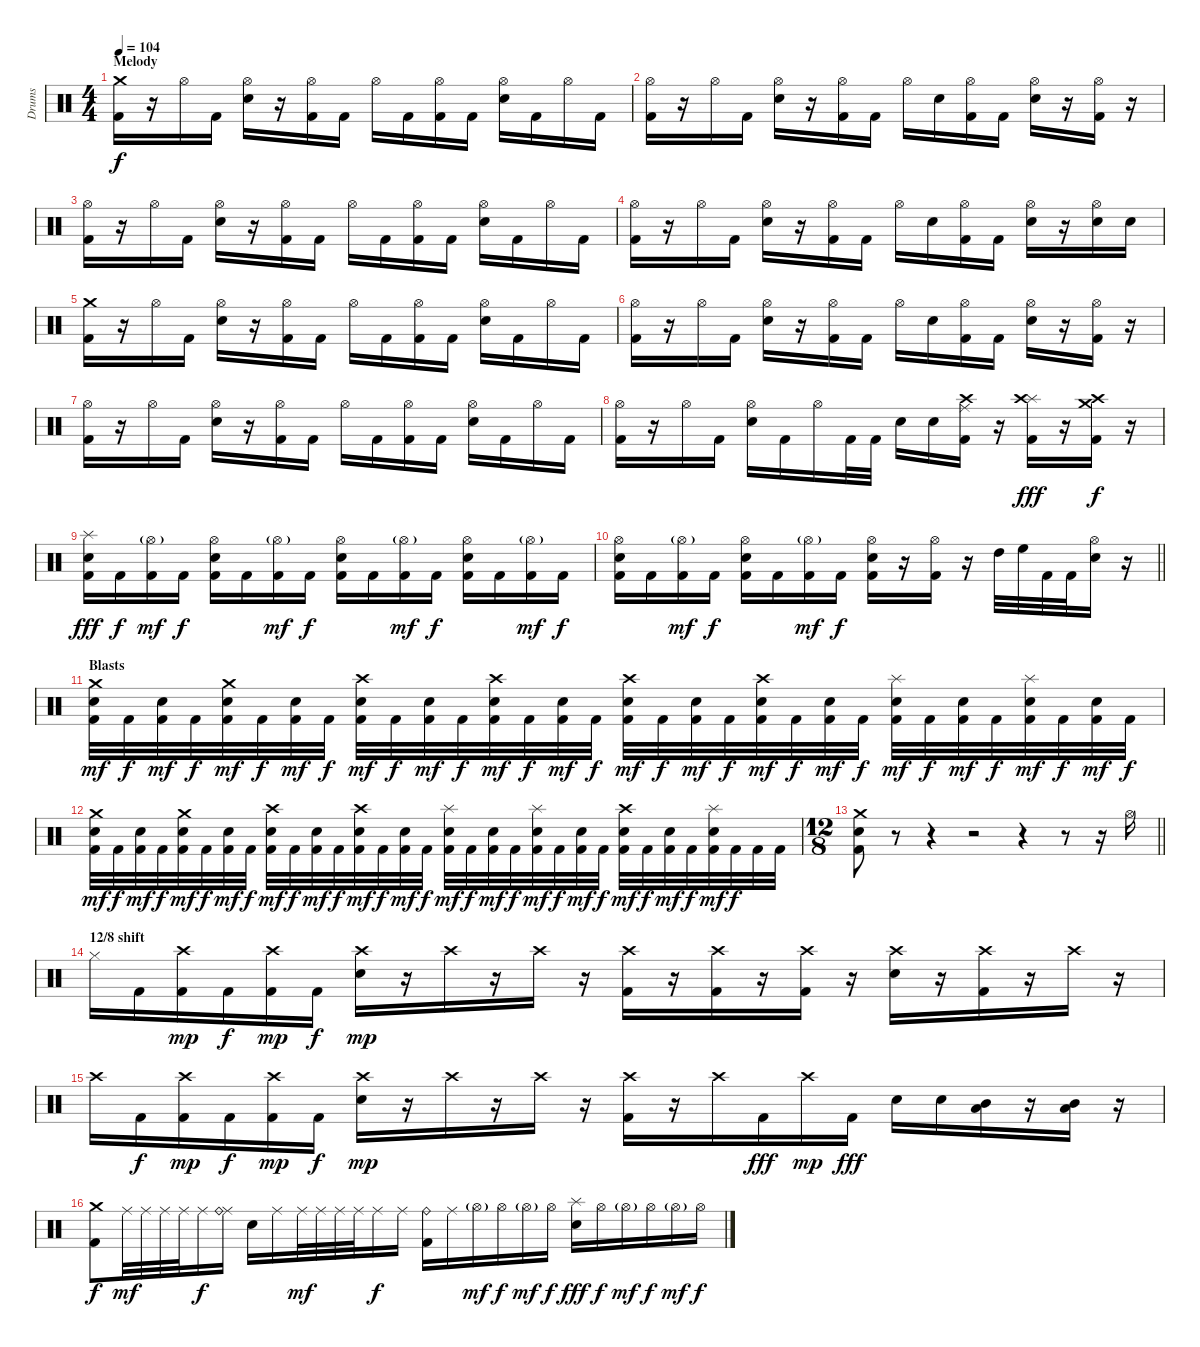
\track ("Drums" "Drums") {instrument percussion}
\staff {score}
\articulation defaults
\ts (4 4)
\section ("" "Melody")
\tempo 104
\clef neutral
\ks c
("Crash medium (hit)" "Kick (hit) 2").16{dy f} r.16 "Hi-Hat (open)".16 "Kick (hit) 2".16 ("Hi-Hat (open)" "Electric Snare (hit)").16 r.16 ("Hi-Hat (open)" "Kick (hit) 2").16 "Kick (hit) 2".16 "Hi-Hat (open)".16 "Kick (hit) 2".16 ("Hi-Hat (open)" "Kick (hit) 2").16 "Kick (hit) 2".16 ("Hi-Hat (open)" "Electric Snare (hit)").16 "Kick (hit) 2".16 "Hi-Hat (open)".16 "Kick (hit) 2".16 |
("Hi-Hat (open)" "Kick (hit) 2").16 r.16 "Hi-Hat (open)".16 "Kick (hit) 2".16 ("Hi-Hat (open)" "Electric Snare (hit)").16 r.16 ("Hi-Hat (open)" "Kick (hit) 2").16 "Kick (hit) 2".16 "Hi-Hat (open)".16 "Electric Snare (hit)".16 ("Hi-Hat (open)" "Kick (hit) 2").16 "Kick (hit) 2".16 ("Hi-Hat (open)" "Electric Snare (hit)").16 r.16 ("Hi-Hat (open)" "Kick (hit) 2").16 r.16 |
("Hi-Hat (open)" "Kick (hit) 2").16 r.16 "Hi-Hat (open)".16 "Kick (hit) 2".16 ("Hi-Hat (open)" "Electric Snare (hit)").16 r.16 ("Hi-Hat (open)" "Kick (hit) 2").16 "Kick (hit) 2".16 "Hi-Hat (open)".16 "Kick (hit) 2".16 ("Hi-Hat (open)" "Kick (hit) 2").16 "Kick (hit) 2".16 ("Hi-Hat (open)" "Electric Snare (hit)").16 "Kick (hit) 2".16 "Hi-Hat (open)".16 "Kick (hit) 2".16 |
("Hi-Hat (open)" "Kick (hit) 2").16 r.16 "Hi-Hat (open)".16 "Kick (hit) 2".16 ("Hi-Hat (open)" "Electric Snare (hit)").16 r.16 ("Hi-Hat (open)" "Kick (hit) 2").16 "Kick (hit) 2".16 "Hi-Hat (open)".16 "Electric Snare (hit)".16 ("Hi-Hat (open)" "Kick (hit) 2").16 "Kick (hit) 2".16 ("Hi-Hat (open)" "Electric Snare (hit)").16 r.16 ("Hi-Hat (open)" "Electric Snare (hit)").16 "Electric Snare (hit)".16 |
("Crash medium (hit)" "Kick (hit) 2").16 r.16 "Hi-Hat (open)".16 "Kick (hit) 2".16 ("Hi-Hat (open)" "Electric Snare (hit)").16 r.16 ("Hi-Hat (open)" "Kick (hit) 2").16 "Kick (hit) 2".16 "Hi-Hat (open)".16 "Kick (hit) 2".16 ("Hi-Hat (open)" "Kick (hit) 2").16 "Kick (hit) 2".16 ("Hi-Hat (open)" "Electric Snare (hit)").16 "Kick (hit) 2".16 "Hi-Hat (open)".16 "Kick (hit) 2".16 |
("Hi-Hat (open)" "Kick (hit) 2").16 r.16 "Hi-Hat (open)".16 "Kick (hit) 2".16 ("Hi-Hat (open)" "Electric Snare (hit)").16 r.16 ("Hi-Hat (open)" "Kick (hit) 2").16 "Kick (hit) 2".16 "Hi-Hat (open)".16 "Electric Snare (hit)".16 ("Hi-Hat (open)" "Kick (hit) 2").16 "Kick (hit) 2".16 ("Hi-Hat (open)" "Electric Snare (hit)").16 r.16 ("Hi-Hat (open)" "Kick (hit) 2").16 r.16 |
("Hi-Hat (open)" "Kick (hit) 2").16 r.16 "Hi-Hat (open)".16 "Kick (hit) 2".16 ("Hi-Hat (open)" "Electric Snare (hit)").16 r.16 ("Hi-Hat (open)" "Kick (hit) 2").16 "Kick (hit) 2".16 "Hi-Hat (open)".16 "Kick (hit) 2".16 ("Hi-Hat (open)" "Kick (hit) 2").16 "Kick (hit) 2".16 ("Hi-Hat (open)" "Electric Snare (hit)").16 "Kick (hit) 2".16 "Hi-Hat (open)".16 "Kick (hit) 2".16 |
("Hi-Hat (open)" "Kick (hit) 2").16 r.16 "Hi-Hat (open)".16 "Kick (hit) 2".16 ("Hi-Hat (open)" "Electric Snare (hit)").16 "Kick (hit) 2".16 "Hi-Hat (open)".16 "Kick (hit) 2".32 "Kick (hit) 2".32 "Electric Snare (hit)".16 "Electric Snare (hit)".16 ("Crash high (hit)" "Ride (middle)" "Kick (hit) 2").16 r.16 ("Splash (hit)" "Crash high (hit)" "Kick (hit) 2").16{dy fff} r.16 ("Crash high (hit)" "Crash medium (hit)" "Kick (hit) 2").16{dy f} r.16 |
("Splash (hit)" "Electric Snare (hit)" "Kick (hit) 2").16{dy fff} "Kick (hit) 2".16{dy f} ("Hi-Hat (open)"{g} "Kick (hit) 2").16{dy mf} "Kick (hit) 2".16{dy f} ("Hi-Hat (open)" "Electric Snare (hit)" "Kick (hit) 2").16 "Kick (hit) 2".16 ("Hi-Hat (open)"{g} "Kick (hit) 2").16{dy mf} "Kick (hit) 2".16{dy f} ("Hi-Hat (open)" "Electric Snare (hit)" "Kick (hit) 2").16 "Kick (hit) 2".16 ("Hi-Hat (open)"{g} "Kick (hit) 2").16{dy mf} "Kick (hit) 2".16{dy f} ("Hi-Hat (open)" "Electric Snare (hit)" "Kick (hit) 2").16 "Kick (hit) 2".16 ("Hi-Hat (open)"{g} "Kick (hit) 2").16{dy mf} "Kick (hit) 2".16{dy f} |
\barLineRight lightlight
("Hi-Hat (open)" "Electric Snare (hit)" "Kick (hit) 2").16 "Kick (hit) 2".16 ("Hi-Hat (open)"{g} "Kick (hit) 2").16{dy mf} "Kick (hit) 2".16{dy f} ("Hi-Hat (open)" "Electric Snare (hit)" "Kick (hit) 2").16 "Kick (hit) 2".16 ("Hi-Hat (open)"{g} "Kick (hit) 2").16{dy mf} "Kick (hit) 2".16{dy f} ("Hi-Hat (open)" "Electric Snare (hit)" "Kick (hit) 2").16 r.16 ("Hi-Hat (open)" "Kick (hit) 2").16 r.16 "High Tom (hit)".32 "High Floor Tom (hit)".32 "Kick (hit) 2".32 "Kick (hit) 2".32 ("Hi-Hat (open)" "Electric Snare (hit)").16 r.16 |
\section ("" "Blasts")
("Crash medium (hit)" "Electric Snare (hit)" "Kick (hit) 2").32{dy mf} "Kick (hit) 2".32{dy f} ("Electric Snare (hit)" "Kick (hit) 2").32{dy mf} "Kick (hit) 2".32{dy f} ("Crash medium (hit)" "Electric Snare (hit)" "Kick (hit) 2").32{dy mf} "Kick (hit) 2".32{dy f} ("Electric Snare (hit)" "Kick (hit) 2").32{dy mf} "Kick (hit) 2".32{dy f} ("Crash high (hit)" "Electric Snare (hit)" "Kick (hit) 2").32{dy mf} "Kick (hit) 2".32{dy f} ("Electric Snare (hit)" "Kick (hit) 2").32{dy mf} "Kick (hit) 2".32{dy f} ("Crash high (hit)" "Electric Snare (hit)" "Kick (hit) 2").32{dy mf} "Kick (hit) 2".32{dy f} ("Electric Snare (hit)" "Kick (hit) 2").32{dy mf} "Kick (hit) 2".32{dy f} ("Crash high (hit)" "Electric Snare (hit)" "Kick (hit) 2").32{dy mf} "Kick (hit) 2".32{dy f} ("Electric Snare (hit)" "Kick (hit) 2").32{dy mf} "Kick (hit) 2".32{dy f} ("Crash high (hit)" "Electric Snare (hit)" "Kick (hit) 2").32{dy mf} "Kick (hit) 2".32{dy f} ("Electric Snare (hit)" "Kick (hit) 2").32{dy mf} "Kick (hit) 2".32{dy f} ("Splash (hit)" "Electric Snare (hit)" "Kick (hit) 2").32{dy mf} "Kick (hit) 2".32{dy f} ("Electric Snare (hit)" "Kick (hit) 2").32{dy mf} "Kick (hit) 2".32{dy f} ("Splash (hit)" "Electric Snare (hit)" "Kick (hit) 2").32{dy mf} "Kick (hit) 2".32{dy f} ("Electric Snare (hit)" "Kick (hit) 2").32{dy mf} "Kick (hit) 2".32{dy f} |
("Crash medium (hit)" "Electric Snare (hit)" "Kick (hit) 2").32{dy mf} "Kick (hit) 2".32{dy f} ("Electric Snare (hit)" "Kick (hit) 2").32{dy mf} "Kick (hit) 2".32{dy f} ("Crash medium (hit)" "Electric Snare (hit)" "Kick (hit) 2").32{dy mf} "Kick (hit) 2".32{dy f} ("Electric Snare (hit)" "Kick (hit) 2").32{dy mf} "Kick (hit) 2".32{dy f} ("Crash high (hit)" "Electric Snare (hit)" "Kick (hit) 2").32{dy mf} "Kick (hit) 2".32{dy f} ("Electric Snare (hit)" "Kick (hit) 2").32{dy mf} "Kick (hit) 2".32{dy f} ("Crash high (hit)" "Electric Snare (hit)" "Kick (hit) 2").32{dy mf} "Kick (hit) 2".32{dy f} ("Electric Snare (hit)" "Kick (hit) 2").32{dy mf} "Kick (hit) 2".32{dy f} ("Splash (hit)" "Electric Snare (hit)" "Kick (hit) 2").32{dy mf} "Kick (hit) 2".32{dy f} ("Electric Snare (hit)" "Kick (hit) 2").32{dy mf} "Kick (hit) 2".32{dy f} ("Splash (hit)" "Electric Snare (hit)" "Kick (hit) 2").32{dy mf} "Kick (hit) 2".32{dy f} ("Electric Snare (hit)" "Kick (hit) 2").32{dy mf} "Kick (hit) 2".32{dy f} ("Crash high (hit)" "Electric Snare (hit)" "Kick (hit) 2").32{dy mf} "Kick (hit) 2".32{dy f} ("Electric Snare (hit)" "Kick (hit) 2").32{dy mf} "Kick (hit) 2".32{dy f} ("Splash (hit)" "Electric Snare (hit)" "Kick (hit) 2").32{dy mf} "Kick (hit) 2".32{dy f} "Kick (hit) 2".32 "Kick (hit) 2".32 |
\ts (12 8)
\barLineRight lightlight
("Crash medium (hit)" "Electric Snare (hit)" "Kick (hit) 2").8 r.8{volume 0} r.4 r.2 r.4 r.8 r.16 "Hi-Hat (open)".16{volume 14} |
\section ("" "12/8 shift")
"Hi-Hat (closed)".16{volume 14} "Kick (hit) 2".16 ("Crash high (hit)" "Kick (hit) 2").16{dy mp} "Kick (hit) 2".16{dy f} ("Crash high (hit)" "Kick (hit) 2").16{dy mp} "Kick (hit) 2".16{dy f} ("Crash high (hit)" "Electric Snare (hit)").16{dy mp} r.16 "Crash high (hit)".16 r.16 "Crash high (hit)".16 r.16 ("Crash high (hit)" "Kick (hit) 2").16 r.16 ("Crash high (hit)" "Kick (hit) 2").16 r.16 ("Crash high (hit)" "Kick (hit) 2").16 r.16 ("Crash high (hit)" "Electric Snare (hit)").16 r.16 ("Crash high (hit)" "Kick (hit) 2").16 r.16 "Crash high (hit)".16 r.16 |
"Crash high (hit)".16 "Kick (hit) 2".16{dy f} ("Crash high (hit)" "Kick (hit) 2").16{dy mp} "Kick (hit) 2".16{dy f} ("Crash high (hit)" "Kick (hit) 2").16{dy mp} "Kick (hit) 2".16{dy f} ("Crash high (hit)" "Electric Snare (hit)").16{dy mp} r.16 "Crash high (hit)".16 r.16 "Crash high (hit)".16 r.16 ("Crash high (hit)" "Kick (hit) 2").16 r.16 "Crash high (hit)".16 "Kick (hit) 2".16{dy fff} "Crash high (hit)".16{dy mp} "Kick (hit) 2".16{dy fff} "Electric Snare (hit)".16 "Electric Snare (hit)".16 ("Mid Tom (hit)" "Low Tom (hit)").16 r.16 ("Mid Tom (hit)" "Low Tom (hit)").16 r.16 |
("Crash medium (hit)" "Kick (hit) 2").8{dy f} "Ride (middle)".32{dy mf} "Ride (middle)".32 "Ride (middle)".32 "Ride (middle)".32 "Ride (middle)".16{dy f} ("Ride (middle)" "Ride (bell)").16 "Electric Snare (hit)".16 "Ride (middle)".16 "Ride (middle)".32{dy mf} "Ride (middle)".32 "Ride (middle)".32 "Ride (middle)".32 "Ride (middle)".16{dy f} "Ride (middle)".16 ("Ride (bell)" "Kick (hit) 2").16 "Ride (middle)".16 "Hi-Hat (open)"{g}.16{dy mf} "Hi-Hat (open)".16{dy f} "Hi-Hat (open)"{g}.16{dy mf} "Hi-Hat (open)".16{dy f} ("Splash (hit)" "Electric Snare (hit)").16{dy fff} "Hi-Hat (open)".16{dy f} "Hi-Hat (open)"{g}.16{dy mf} "Hi-Hat (open)".16{dy f} "Hi-Hat (open)"{g}.16{dy mf} "Hi-Hat (open)".16{dy f}
